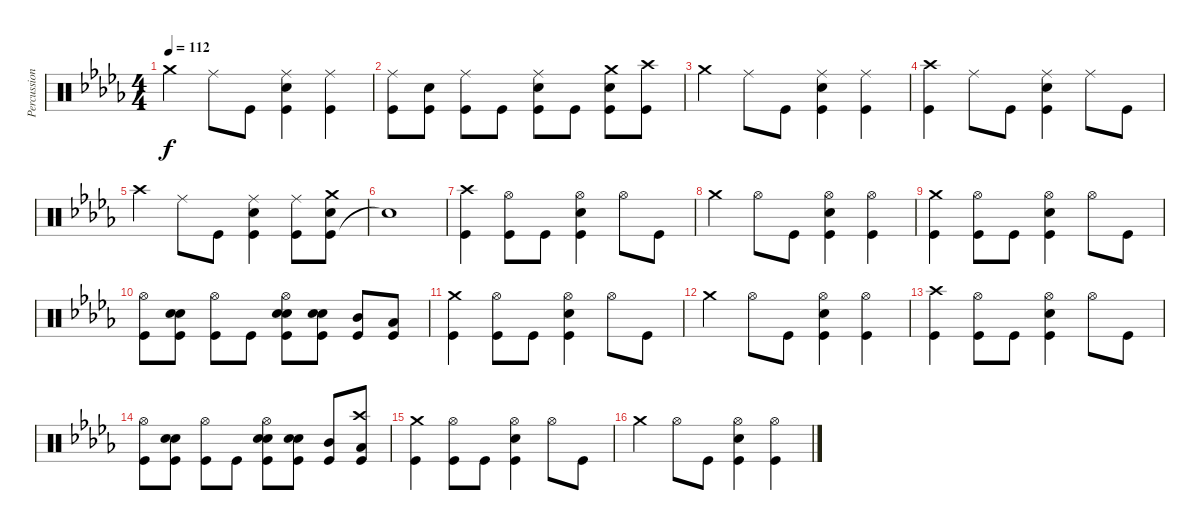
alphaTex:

\track ("Percussion" "Percussion") {instrument percussion}
\staff {score}
\articulation defaults
\ts (4 4)
\tempo 112
\clef neutral
\ks bbminor "Crash medium (hit)".4{dy f} "Ride (middle)".8 "Kick (hit)".8
("Kick (hit)" "Snare (hit) 2" "Ride (middle)").4 ("Kick (hit)" "Ride (middle)").4 |
("Kick (hit)" "Ride (middle)").8 ("Kick (hit)" "Snare (hit) 2").8 ("Kick (hit)" "Ride (middle)").8 "Kick (hit)".8 ("Kick (hit)" "Snare (hit) 2" "Ride (middle)").8 "Kick (hit)".8 ("Kick (hit)" "Snare (hit) 2" "Crash medium (hit)").8 ("Kick (hit)" "Crash high (hit)").8 |
"Crash medium (hit)".4 "Ride (middle)".8 "Kick (hit)".8 ("Kick (hit)" "Snare (hit) 2" "Ride (middle)").4 ("Kick (hit)" "Ride (middle)").4 |
("Kick (hit)" "Crash high (hit)").4 "Ride (middle)".8 "Kick (hit)".8 ("Kick (hit)" "Snare (hit) 2" "Ride (middle)").4 "Ride (middle)".8 "Kick (hit)".8 |
"Crash high (hit)".4 "Ride (middle)".8 "Kick (hit)".8 ("Kick (hit)" "Snare (hit) 2" "Ride (middle)").4 ("Kick (hit)" "Ride (middle)").8 ("Kick (hit)" "Snare (hit) 2" "Crash medium (hit)").8 |
"Snare (hit)"{t}.1 |
("Kick (hit)" "Crash high (hit)").4 ("Kick (hit)" "Hi-Hat (open)").8 "Kick (hit)".8 ("Kick (hit)" "Snare (hit) 2" "Hi-Hat (open)").4 "Hi-Hat (open)".8 "Kick (hit)".8 |
"Crash medium (hit)".4 "Hi-Hat (open)".8 "Kick (hit)".8 ("Kick (hit)" "Snare (hit) 2" "Hi-Hat (open)").4 ("Kick (hit)" "Hi-Hat (open)").4 |
("Kick (hit)" "Crash medium (hit)").4 ("Kick (hit)" "Hi-Hat (open)").8 "Kick (hit)".8 ("Kick (hit)" "Snare (hit) 2" "Hi-Hat (open)").4 "Hi-Hat (open)".8 "Kick (hit)".8 |
("Kick (hit)" "Hi-Hat (open)").8 ("Kick (hit)" "Snare (hit) 2" "Snare (hit) 2").8 ("Kick (hit)" "Hi-Hat (open)").8 "Kick (hit)".8 ("Kick (hit)" "Snare (hit) 2" "Snare (hit) 2" "Hi-Hat (open)").8 ("Kick (hit)" "Snare (hit) 2" "Snare (hit) 2").8 ("Kick (hit)" "Mid Tom (hit)").8 ("Kick (hit)" "Low Tom (hit)").8 |
("Kick (hit)" "Crash medium (hit)").4 ("Kick (hit)" "Hi-Hat (open)").8 "Kick (hit)".8 ("Kick (hit)" "Snare (hit) 2" "Hi-Hat (open)").4 "Hi-Hat (open)".8 "Kick (hit)".8 |
"Crash medium (hit)".4 "Hi-Hat (open)".8 "Kick (hit)".8 ("Kick (hit)" "Snare (hit) 2" "Hi-Hat (open)").4 ("Kick (hit)" "Hi-Hat (open)").4 |
("Kick (hit)" "Crash high (hit)").4 ("Kick (hit)" "Hi-Hat (open)").8 "Kick (hit)".8 ("Kick (hit)" "Snare (hit) 2" "Hi-Hat (open)").4 "Hi-Hat (open)".8 "Kick (hit)".8 |
("Kick (hit)" "Hi-Hat (open)").8 ("Kick (hit)" "Snare (hit) 2" "Snare (hit) 2").8 ("Kick (hit)" "Hi-Hat (open)").8 "Kick (hit)".8 ("Kick (hit)" "Snare (hit) 2" "Snare (hit) 2" "Hi-Hat (open)").8 ("Kick (hit)" "Snare (hit) 2" "Snare (hit) 2").8 ("Kick (hit)" "Mid Tom (hit)").8 ("Kick (hit)" "Low Tom (hit)" "Crash high (hit)").8 |
("Kick (hit)" "Crash medium (hit)").4 ("Kick (hit)" "Hi-Hat (open)").8 "Kick (hit)".8 ("Kick (hit)" "Snare (hit) 2" "Hi-Hat (open)").4 "Hi-Hat (open)".8 "Kick (hit)".8 |
"Crash medium (hit)".4 "Hi-Hat (open)".8 "Kick (hit)".8 ("Kick (hit)" "Snare (hit) 2" "Hi-Hat (open)").4 ("Kick (hit)" "Hi-Hat (open)").4
